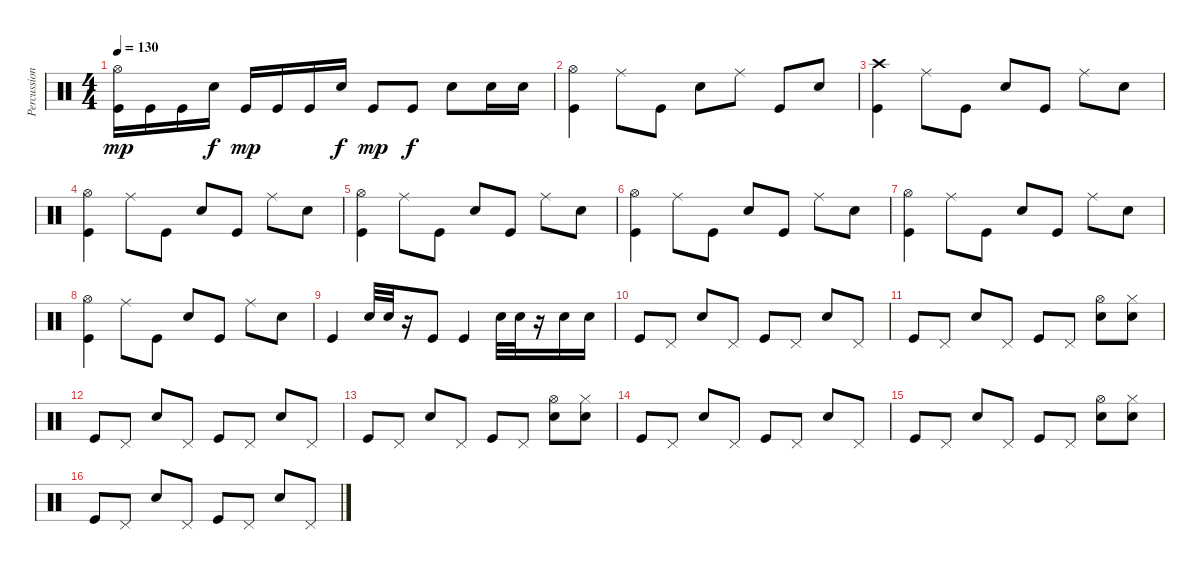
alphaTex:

\track ("Percussions" "Percussion") {instrument percussion}
\staff {score}
\articulation defaults
\ts (4 4)
\tempo 130
\clef neutral
\ks c
("Hi-Hat (open)" "Kick (hit)").16{dy mp} "Kick (hit)".16 "Kick (hit)".16 "Snare (hit) 2".16{dy f} "Kick (hit)".16{dy mp} "Kick (hit)".16 "Kick (hit)".16 "Snare (hit) 2".16{dy f} "Kick (hit)".8{dy mp} "Kick (hit)".8{dy f} "Snare (hit) 2".8 "Snare (hit) 2".16 "Snare (hit) 2".16 |
("Hi-Hat (open)" "Kick (hit)").4 "Ride (middle)".8 "Kick (hit)".8 "Snare (hit) 2".8 "Ride (middle)".8 "Kick (hit)".8 "Snare (hit) 2".8 |
("Crash high (hit)" "Kick (hit)").4 "Ride (middle)".8 "Kick (hit)".8 "Snare (hit) 2".8 "Kick (hit)".8 "Ride (middle)".8 "Snare (hit) 2".8 |
("Hi-Hat (open)" "Kick (hit)").4 "Ride (middle)".8 "Kick (hit)".8 "Snare (hit) 2".8 "Kick (hit)".8 "Ride (middle)".8 "Snare (hit) 2".8 |
("Hi-Hat (open)" "Kick (hit)").4 "Ride (middle)".8 "Kick (hit)".8 "Snare (hit) 2".8 "Kick (hit)".8 "Ride (middle)".8 "Snare (hit) 2".8 |
("Hi-Hat (open)" "Kick (hit)").4 "Ride (middle)".8 "Kick (hit)".8 "Snare (hit) 2".8 "Kick (hit)".8 "Ride (middle)".8 "Snare (hit) 2".8 |
("Hi-Hat (open)" "Kick (hit)").4 "Ride (middle)".8 "Kick (hit)".8 "Snare (hit) 2".8 "Kick (hit)".8 "Ride (middle)".8 "Snare (hit) 2".8 |
("Hi-Hat (open)" "Kick (hit)").4 "Ride (middle)".8 "Kick (hit)".8 "Snare (hit) 2".8 "Kick (hit)".8 "Ride (middle)".8 "Snare (hit) 2".8 |
"Kick (hit)".4 "Snare (hit) 2".32 "Snare (hit) 2".32 r.16 "Kick (hit)".8 "Kick (hit)".4 "Snare (hit) 2".32 "Snare (hit) 2".32 r.16 "Snare (hit) 2".16 "Snare (hit) 2".16 |
"Kick (hit)".8 "Pedal Hi-Hat (hit)".8 "Snare (hit) 2".8 "Pedal Hi-Hat (hit)".8 "Kick (hit)".8 "Pedal Hi-Hat (hit)".8 "Snare (hit) 2".8 "Pedal Hi-Hat (hit)".8 |
"Kick (hit)".8 "Pedal Hi-Hat (hit)".8 "Snare (hit) 2".8 "Pedal Hi-Hat (hit)".8 "Kick (hit)".8 "Pedal Hi-Hat (hit)".8 ("Hi-Hat (open)" "Snare (hit) 2").8 ("Hi-Hat (closed)" "Snare (hit) 2").8 |
"Kick (hit)".8 "Pedal Hi-Hat (hit)".8 "Snare (hit) 2".8 "Pedal Hi-Hat (hit)".8 "Kick (hit)".8 "Pedal Hi-Hat (hit)".8 "Snare (hit) 2".8 "Pedal Hi-Hat (hit)".8 |
"Kick (hit)".8 "Pedal Hi-Hat (hit)".8 "Snare (hit) 2".8 "Pedal Hi-Hat (hit)".8 "Kick (hit)".8 "Pedal Hi-Hat (hit)".8 ("Hi-Hat (open)" "Snare (hit) 2").8 ("Hi-Hat (closed)" "Snare (hit) 2").8 |
"Kick (hit)".8 "Pedal Hi-Hat (hit)".8 "Snare (hit) 2".8 "Pedal Hi-Hat (hit)".8 "Kick (hit)".8 "Pedal Hi-Hat (hit)".8 "Snare (hit) 2".8 "Pedal Hi-Hat (hit)".8 |
"Kick (hit)".8 "Pedal Hi-Hat (hit)".8 "Snare (hit) 2".8 "Pedal Hi-Hat (hit)".8 "Kick (hit)".8 "Pedal Hi-Hat (hit)".8 ("Hi-Hat (open)" "Snare (hit) 2").8 ("Hi-Hat (closed)" "Snare (hit) 2").8 |
"Kick (hit)".8 "Pedal Hi-Hat (hit)".8 "Snare (hit) 2".8 "Pedal Hi-Hat (hit)".8 "Kick (hit)".8 "Pedal Hi-Hat (hit)".8 "Snare (hit) 2".8 "Pedal Hi-Hat (hit)".8
